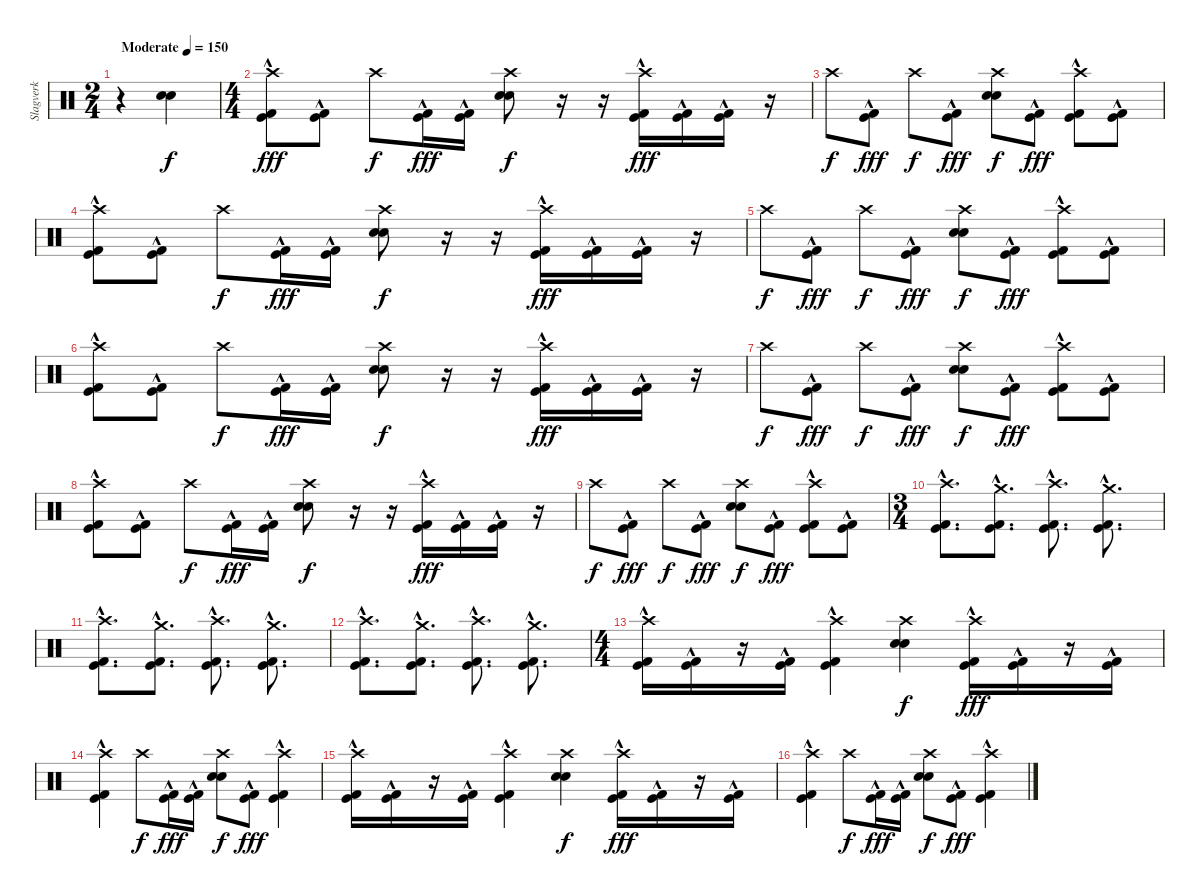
\track ("Slagverk" "Slagverk") {instrument percussion}
\staff {score}
\articulation defaults
\ts (2 4)
\tempo (150 "Moderate")
\clef neutral
\ks c
r.4{dy f} ("Electric Snare (hit)" "Snare (hit) 2").4 |
\ts (4 4)
("Crash high (hit)" "Kick (hit)"{hac} "Kick (hit) 2"{hac}).8{dy fff} ("Kick (hit)"{hac} "Kick (hit) 2"{hac}).8 "Crash high (hit)".8{dy f} ("Kick (hit)"{hac} "Kick (hit) 2"{hac}).16{dy fff} ("Kick (hit)"{hac} "Kick (hit) 2"{hac}).16 ("Crash high (hit)" "Electric Snare (hit)" "Snare (hit) 2").8{dy f} r.16 r.16 ("Crash high (hit)" "Kick (hit)"{hac} "Kick (hit) 2"{hac}).16{dy fff} ("Kick (hit)"{hac} "Kick (hit) 2"{hac}).16 ("Kick (hit)"{hac} "Kick (hit) 2"{hac}).16 r.16 |
"Crash high (hit)".8{dy f} ("Kick (hit)"{hac} "Kick (hit) 2"{hac}).8{dy fff} "Crash high (hit)".8{dy f} ("Kick (hit)"{hac} "Kick (hit) 2"{hac}).8{dy fff} ("Crash high (hit)" "Electric Snare (hit)" "Snare (hit) 2").8{dy f} ("Kick (hit)"{hac} "Kick (hit) 2"{hac}).8{dy fff} ("Crash high (hit)" "Kick (hit)"{hac} "Kick (hit) 2"{hac}).8 ("Kick (hit)"{hac} "Kick (hit) 2"{hac}).8 |
("Crash high (hit)" "Kick (hit)"{hac} "Kick (hit) 2"{hac}).8 ("Kick (hit)"{hac} "Kick (hit) 2"{hac}).8 "Crash high (hit)".8{dy f} ("Kick (hit)"{hac} "Kick (hit) 2"{hac}).16{dy fff} ("Kick (hit)"{hac} "Kick (hit) 2"{hac}).16 ("Crash high (hit)" "Electric Snare (hit)" "Snare (hit) 2").8{dy f} r.16 r.16 ("Crash high (hit)" "Kick (hit)"{hac} "Kick (hit) 2"{hac}).16{dy fff} ("Kick (hit)"{hac} "Kick (hit) 2"{hac}).16 ("Kick (hit)"{hac} "Kick (hit) 2"{hac}).16 r.16 |
"Crash high (hit)".8{dy f} ("Kick (hit)"{hac} "Kick (hit) 2"{hac}).8{dy fff} "Crash high (hit)".8{dy f} ("Kick (hit)"{hac} "Kick (hit) 2"{hac}).8{dy fff} ("Crash high (hit)" "Electric Snare (hit)" "Snare (hit) 2").8{dy f} ("Kick (hit)"{hac} "Kick (hit) 2"{hac}).8{dy fff} ("Crash high (hit)" "Kick (hit)"{hac} "Kick (hit) 2"{hac}).8 ("Kick (hit)"{hac} "Kick (hit) 2"{hac}).8 |
("Crash high (hit)" "Kick (hit)"{hac} "Kick (hit) 2"{hac}).8 ("Kick (hit)"{hac} "Kick (hit) 2"{hac}).8 "Crash high (hit)".8{dy f} ("Kick (hit)"{hac} "Kick (hit) 2"{hac}).16{dy fff} ("Kick (hit)"{hac} "Kick (hit) 2"{hac}).16 ("Crash high (hit)" "Electric Snare (hit)" "Snare (hit) 2").8{dy f} r.16 r.16 ("Crash high (hit)" "Kick (hit)"{hac} "Kick (hit) 2"{hac}).16{dy fff} ("Kick (hit)"{hac} "Kick (hit) 2"{hac}).16 ("Kick (hit)"{hac} "Kick (hit) 2"{hac}).16 r.16 |
"Crash high (hit)".8{dy f} ("Kick (hit)"{hac} "Kick (hit) 2"{hac}).8{dy fff} "Crash high (hit)".8{dy f} ("Kick (hit)"{hac} "Kick (hit) 2"{hac}).8{dy fff} ("Crash high (hit)" "Electric Snare (hit)" "Snare (hit) 2").8{dy f} ("Kick (hit)"{hac} "Kick (hit) 2"{hac}).8{dy fff} ("Crash high (hit)" "Kick (hit)"{hac} "Kick (hit) 2"{hac}).8 ("Kick (hit)"{hac} "Kick (hit) 2"{hac}).8 |
("Crash high (hit)" "Kick (hit)"{hac} "Kick (hit) 2"{hac}).8 ("Kick (hit)"{hac} "Kick (hit) 2"{hac}).8 "Crash high (hit)".8{dy f} ("Kick (hit)"{hac} "Kick (hit) 2"{hac}).16{dy fff} ("Kick (hit)"{hac} "Kick (hit) 2"{hac}).16 ("Crash high (hit)" "Electric Snare (hit)" "Snare (hit) 2").8{dy f} r.16 r.16 ("Crash high (hit)" "Kick (hit)"{hac} "Kick (hit) 2"{hac}).16{dy fff} ("Kick (hit)"{hac} "Kick (hit) 2"{hac}).16 ("Kick (hit)"{hac} "Kick (hit) 2"{hac}).16 r.16 |
"Crash high (hit)".8{dy f} ("Kick (hit)"{hac} "Kick (hit) 2"{hac}).8{dy fff} "Crash high (hit)".8{dy f} ("Kick (hit)"{hac} "Kick (hit) 2"{hac}).8{dy fff} ("Crash high (hit)" "Electric Snare (hit)" "Snare (hit) 2").8{dy f} ("Kick (hit)"{hac} "Kick (hit) 2"{hac}).8{dy fff} ("Crash high (hit)" "Kick (hit)"{hac} "Kick (hit) 2"{hac}).8 ("Kick (hit)"{hac} "Kick (hit) 2"{hac}).8 |
\ts (3 4)
("Crash high (hit)" "Kick (hit)"{hac} "Kick (hit) 2"{hac}).8{d} ("Crash medium (hit)" "Kick (hit)"{hac} "Kick (hit) 2"{hac}).8{d} ("Crash high (hit)" "Kick (hit)"{hac} "Kick (hit) 2"{hac}).8{d} ("Crash medium (hit)" "Kick (hit)"{hac} "Kick (hit) 2"{hac}).8{d} |
("Crash high (hit)" "Kick (hit)"{hac} "Kick (hit) 2"{hac}).8{d} ("Crash medium (hit)" "Kick (hit)"{hac} "Kick (hit) 2"{hac}).8{d} ("Crash high (hit)" "Kick (hit)"{hac} "Kick (hit) 2"{hac}).8{d} ("Crash medium (hit)" "Kick (hit)"{hac} "Kick (hit) 2"{hac}).8{d} |
("Crash high (hit)" "Kick (hit)"{hac} "Kick (hit) 2"{hac}).8{d} ("Crash medium (hit)" "Kick (hit)"{hac} "Kick (hit) 2"{hac}).8{d} ("Crash high (hit)" "Kick (hit)"{hac} "Kick (hit) 2"{hac}).8{d} ("Crash medium (hit)" "Kick (hit)"{hac} "Kick (hit) 2"{hac}).8{d} |
\ts (4 4)
("Crash high (hit)" "Kick (hit)"{hac} "Kick (hit) 2"{hac}).16 ("Kick (hit)"{hac} "Kick (hit) 2"{hac}).16 r.16 ("Kick (hit)"{hac} "Kick (hit) 2"{hac}).16 ("Crash high (hit)" "Kick (hit)"{hac} "Kick (hit) 2"{hac}).4 ("Crash high (hit)" "Electric Snare (hit)" "Snare (hit) 2").4{dy f} ("Crash high (hit)" "Kick (hit)"{hac} "Kick (hit) 2"{hac}).16{dy fff} ("Kick (hit)"{hac} "Kick (hit) 2"{hac}).16 r.16 ("Kick (hit)"{hac} "Kick (hit) 2"{hac}).16 |
("Crash high (hit)" "Kick (hit)"{hac} "Kick (hit) 2"{hac}).4 "Crash high (hit)".8{dy f} ("Kick (hit)"{hac} "Kick (hit) 2"{hac}).16{dy fff} ("Kick (hit)"{hac} "Kick (hit) 2"{hac}).16 ("Crash high (hit)" "Electric Snare (hit)" "Snare (hit) 2").8{dy f} ("Kick (hit)"{hac} "Kick (hit) 2"{hac}).8{dy fff} ("Crash high (hit)" "Kick (hit)"{hac} "Kick (hit) 2"{hac}).4 |
("Crash high (hit)" "Kick (hit)"{hac} "Kick (hit) 2"{hac}).16 ("Kick (hit)"{hac} "Kick (hit) 2"{hac}).16 r.16 ("Kick (hit)"{hac} "Kick (hit) 2"{hac}).16 ("Crash high (hit)" "Kick (hit)"{hac} "Kick (hit) 2"{hac}).4 ("Crash high (hit)" "Electric Snare (hit)" "Snare (hit) 2").4{dy f} ("Crash high (hit)" "Kick (hit)"{hac} "Kick (hit) 2"{hac}).16{dy fff} ("Kick (hit)"{hac} "Kick (hit) 2"{hac}).16 r.16 ("Kick (hit)"{hac} "Kick (hit) 2"{hac}).16 |
("Crash high (hit)" "Kick (hit)"{hac} "Kick (hit) 2"{hac}).4 "Crash high (hit)".8{dy f} ("Kick (hit)"{hac} "Kick (hit) 2"{hac}).16{dy fff} ("Kick (hit)"{hac} "Kick (hit) 2"{hac}).16 ("Crash high (hit)" "Electric Snare (hit)" "Snare (hit) 2").8{dy f} ("Kick (hit)"{hac} "Kick (hit) 2"{hac}).8{dy fff} ("Crash high (hit)" "Kick (hit)"{hac} "Kick (hit) 2"{hac}).4
